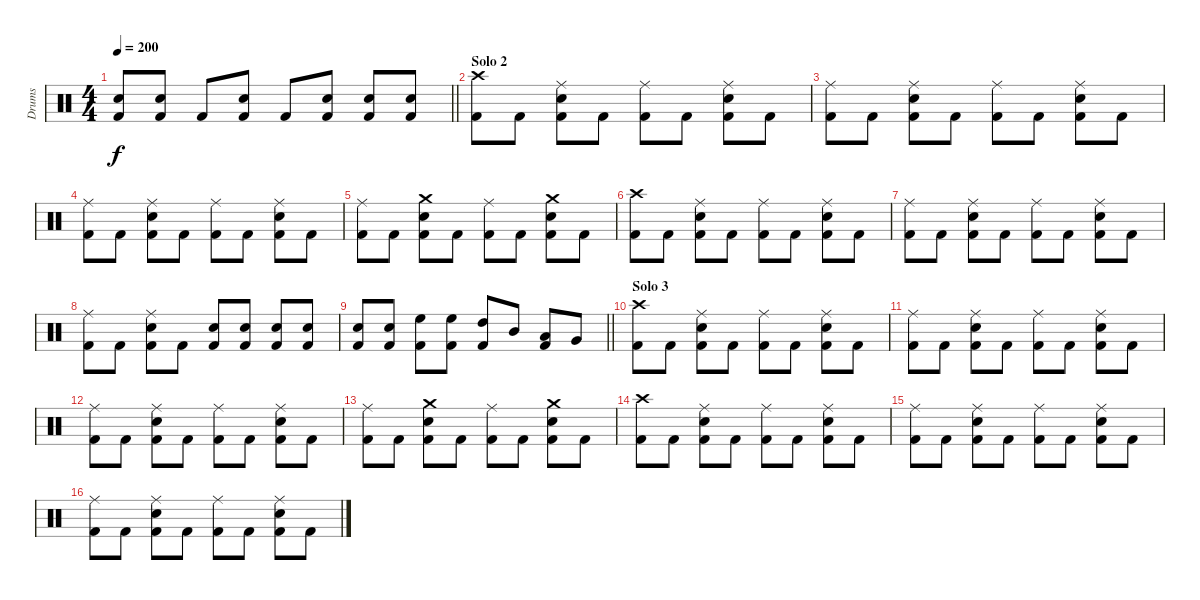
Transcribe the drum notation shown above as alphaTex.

\track ("Drums" "Drums") {instrument percussion}
\staff {score}
\articulation defaults
\ts (4 4)
\tempo 200
\clef neutral
\barLineRight lightlight
\ks c
("Snare (hit) 2" "Kick (hit) 2").8{dy f} ("Snare (hit) 2" "Kick (hit) 2").8 "Kick (hit) 2".8 ("Snare (hit) 2" "Kick (hit) 2").8 "Kick (hit) 2".8 ("Snare (hit) 2" "Kick (hit) 2").8 ("Snare (hit) 2" "Kick (hit) 2").8 ("Snare (hit) 2" "Kick (hit) 2").8 |
\section ("" "Solo 2")
("Crash high (hit)" "Kick (hit) 2").8 "Kick (hit) 2".8 ("Ride (middle)" "Snare (hit) 2" "Kick (hit) 2").8 "Kick (hit) 2".8 ("Ride (middle)" "Kick (hit) 2").8 "Kick (hit) 2".8 ("Ride (middle)" "Snare (hit) 2" "Kick (hit) 2").8 "Kick (hit) 2".8 |
("Ride (middle)" "Kick (hit) 2").8 "Kick (hit) 2".8 ("Ride (middle)" "Snare (hit) 2" "Kick (hit) 2").8 "Kick (hit) 2".8 ("Ride (middle)" "Kick (hit) 2").8 "Kick (hit) 2".8 ("Ride (middle)" "Snare (hit) 2" "Kick (hit) 2").8 "Kick (hit) 2".8 |
("Ride (middle)" "Kick (hit) 2").8 "Kick (hit) 2".8 ("Ride (middle)" "Snare (hit) 2" "Kick (hit) 2").8 "Kick (hit) 2".8 ("Ride (middle)" "Kick (hit) 2").8 "Kick (hit) 2".8 ("Ride (middle)" "Snare (hit) 2" "Kick (hit) 2").8 "Kick (hit) 2".8 |
("Ride (middle)" "Kick (hit) 2").8 "Kick (hit) 2".8 ("Crash medium (hit)" "Snare (hit) 2" "Kick (hit) 2").8 "Kick (hit) 2".8 ("Ride (middle)" "Kick (hit) 2").8 "Kick (hit) 2".8 ("Crash medium (hit)" "Snare (hit) 2" "Kick (hit) 2").8 "Kick (hit) 2".8 |
("Crash high (hit)" "Kick (hit) 2").8 "Kick (hit) 2".8 ("Ride (middle)" "Snare (hit) 2" "Kick (hit) 2").8 "Kick (hit) 2".8 ("Ride (middle)" "Kick (hit) 2").8 "Kick (hit) 2".8 ("Ride (middle)" "Snare (hit) 2" "Kick (hit) 2").8 "Kick (hit) 2".8 |
("Ride (middle)" "Kick (hit) 2").8 "Kick (hit) 2".8 ("Ride (middle)" "Snare (hit) 2" "Kick (hit) 2").8 "Kick (hit) 2".8 ("Ride (middle)" "Kick (hit) 2").8 "Kick (hit) 2".8 ("Ride (middle)" "Snare (hit) 2" "Kick (hit) 2").8 "Kick (hit) 2".8 |
("Ride (middle)" "Kick (hit) 2").8 "Kick (hit) 2".8 ("Ride (middle)" "Snare (hit) 2" "Kick (hit) 2").8 "Kick (hit) 2".8 ("Snare (hit) 2" "Kick (hit) 2").8 ("Snare (hit) 2" "Kick (hit) 2").8 ("Snare (hit) 2" "Kick (hit) 2").8 ("Snare (hit) 2" "Kick (hit) 2").8 |
\barLineRight lightlight
("Electric Snare (hit)" "Kick (hit) 2").8 ("Electric Snare (hit)" "Kick (hit) 2").8 ("High Floor Tom (hit)" "Kick (hit) 2").8 ("High Floor Tom (hit)" "Kick (hit) 2").8 ("High Tom (hit)" "Kick (hit) 2").8 "Mid Tom (hit)".8 ("Low Tom (hit)" "Kick (hit) 2").8 "Very Low Tom (hit)".8 |
\section ("" "Solo 3")
("Crash high (hit)" "Kick (hit) 2").8 "Kick (hit) 2".8 ("Ride (middle)" "Snare (hit) 2" "Kick (hit) 2").8 "Kick (hit) 2".8 ("Ride (middle)" "Kick (hit) 2").8 "Kick (hit) 2".8 ("Ride (middle)" "Snare (hit) 2" "Kick (hit) 2").8 "Kick (hit) 2".8 |
("Ride (middle)" "Kick (hit) 2").8 "Kick (hit) 2".8 ("Ride (middle)" "Snare (hit) 2" "Kick (hit) 2").8 "Kick (hit) 2".8 ("Ride (middle)" "Kick (hit) 2").8 "Kick (hit) 2".8 ("Ride (middle)" "Snare (hit) 2" "Kick (hit) 2").8 "Kick (hit) 2".8 |
("Ride (middle)" "Kick (hit) 2").8 "Kick (hit) 2".8 ("Ride (middle)" "Snare (hit) 2" "Kick (hit) 2").8 "Kick (hit) 2".8 ("Ride (middle)" "Kick (hit) 2").8 "Kick (hit) 2".8 ("Ride (middle)" "Snare (hit) 2" "Kick (hit) 2").8 "Kick (hit) 2".8 |
("Ride (middle)" "Kick (hit) 2").8 "Kick (hit) 2".8 ("Crash medium (hit)" "Snare (hit) 2" "Kick (hit) 2").8 "Kick (hit) 2".8 ("Ride (middle)" "Kick (hit) 2").8 "Kick (hit) 2".8 ("Crash medium (hit)" "Snare (hit) 2" "Kick (hit) 2").8 "Kick (hit) 2".8 |
("Crash high (hit)" "Kick (hit) 2").8 "Kick (hit) 2".8 ("Ride (middle)" "Snare (hit) 2" "Kick (hit) 2").8 "Kick (hit) 2".8 ("Ride (middle)" "Kick (hit) 2").8 "Kick (hit) 2".8 ("Ride (middle)" "Snare (hit) 2" "Kick (hit) 2").8 "Kick (hit) 2".8 |
("Ride (middle)" "Kick (hit) 2").8 "Kick (hit) 2".8 ("Ride (middle)" "Snare (hit) 2" "Kick (hit) 2").8 "Kick (hit) 2".8 ("Ride (middle)" "Kick (hit) 2").8 "Kick (hit) 2".8 ("Ride (middle)" "Snare (hit) 2" "Kick (hit) 2").8 "Kick (hit) 2".8 |
("Ride (middle)" "Kick (hit) 2").8 "Kick (hit) 2".8 ("Ride (middle)" "Snare (hit) 2" "Kick (hit) 2").8 "Kick (hit) 2".8 ("Ride (middle)" "Kick (hit) 2").8 "Kick (hit) 2".8 ("Ride (middle)" "Snare (hit) 2" "Kick (hit) 2").8 "Kick (hit) 2".8
